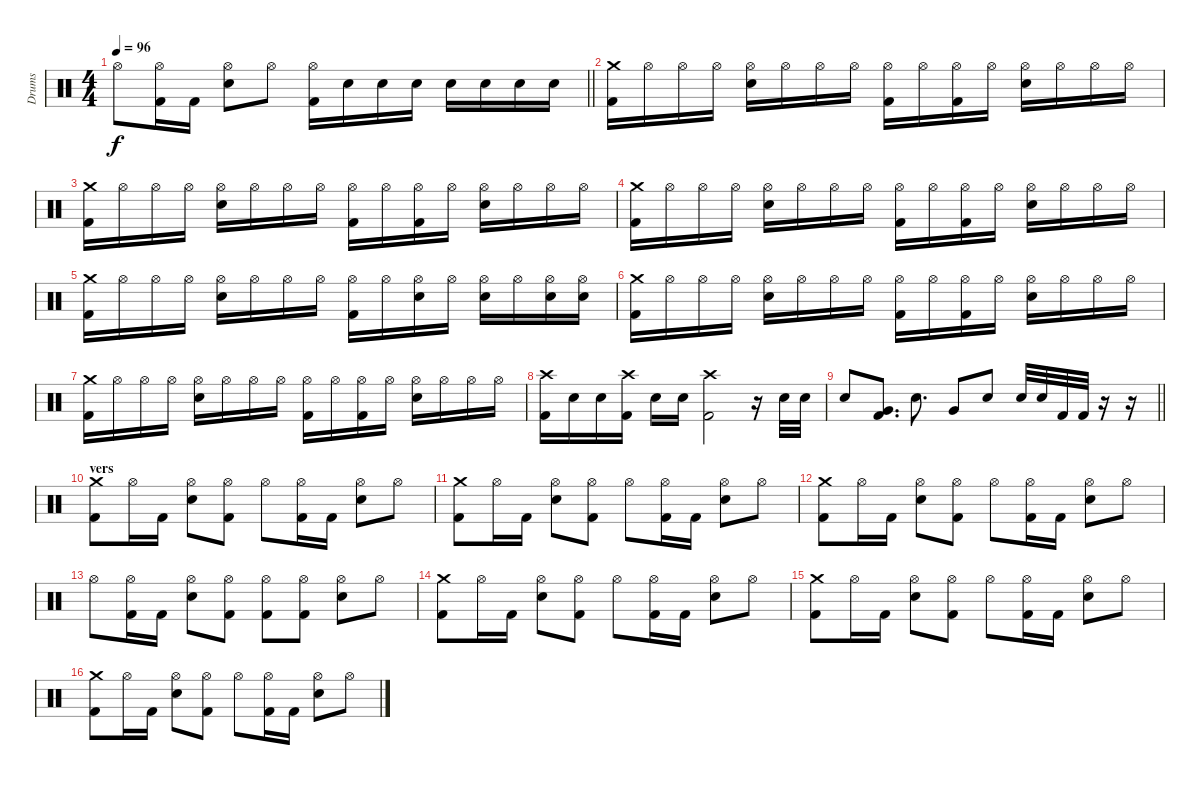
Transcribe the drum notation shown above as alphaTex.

\track ("Drums" "Drums") {instrument percussion}
\staff {score}
\articulation defaults
\ts (4 4)
\tempo 96
\clef neutral
\barLineRight lightlight
\ks c "Hi-Hat (open)".8{dy f}
("Hi-Hat (open)" "Kick (hit) 2").16 "Kick (hit) 2".16 ("Hi-Hat (open)" "Electric Snare (hit)").8 "Hi-Hat (open)".8 ("Hi-Hat (open)" "Kick (hit) 2").16 "Electric Snare (hit)".16 "Electric Snare (hit)".16 "Electric Snare (hit)".16 "Electric Snare (hit)".16 "Electric Snare (hit)".16 "Electric Snare (hit)".16 "Electric Snare (hit)".16 |
("Crash medium (hit)" "Kick (hit) 2").16 "Hi-Hat (open)".16 "Hi-Hat (open)".16 "Hi-Hat (open)".16 ("Hi-Hat (open)" "Electric Snare (hit)").16 "Hi-Hat (open)".16 "Hi-Hat (open)".16 "Hi-Hat (open)".16 ("Hi-Hat (open)" "Kick (hit) 2").16 "Hi-Hat (open)".16 ("Hi-Hat (open)" "Kick (hit) 2").16 "Hi-Hat (open)".16 ("Hi-Hat (open)" "Electric Snare (hit)").16 "Hi-Hat (open)".16 "Hi-Hat (open)".16 "Hi-Hat (open)".16 |
("Crash medium (hit)" "Kick (hit) 2").16 "Hi-Hat (open)".16 "Hi-Hat (open)".16 "Hi-Hat (open)".16 ("Hi-Hat (open)" "Electric Snare (hit)").16 "Hi-Hat (open)".16 "Hi-Hat (open)".16 "Hi-Hat (open)".16 ("Hi-Hat (open)" "Kick (hit) 2").16 "Hi-Hat (open)".16 ("Hi-Hat (open)" "Kick (hit) 2").16 "Hi-Hat (open)".16 ("Hi-Hat (open)" "Electric Snare (hit)").16 "Hi-Hat (open)".16 "Hi-Hat (open)".16 "Hi-Hat (open)".16 |
("Crash medium (hit)" "Kick (hit) 2").16 "Hi-Hat (open)".16 "Hi-Hat (open)".16 "Hi-Hat (open)".16 ("Hi-Hat (open)" "Electric Snare (hit)").16 "Hi-Hat (open)".16 "Hi-Hat (open)".16 "Hi-Hat (open)".16 ("Hi-Hat (open)" "Kick (hit) 2").16 "Hi-Hat (open)".16 ("Hi-Hat (open)" "Kick (hit) 2").16 "Hi-Hat (open)".16 ("Hi-Hat (open)" "Electric Snare (hit)").16 "Hi-Hat (open)".16 "Hi-Hat (open)".16 "Hi-Hat (open)".16 |
("Crash medium (hit)" "Kick (hit) 2").16 "Hi-Hat (open)".16 "Hi-Hat (open)".16 "Hi-Hat (open)".16 ("Hi-Hat (open)" "Electric Snare (hit)").16 "Hi-Hat (open)".16 "Hi-Hat (open)".16 "Hi-Hat (open)".16 ("Hi-Hat (open)" "Kick (hit) 2").16 "Hi-Hat (open)".16 ("Hi-Hat (open)" "Electric Snare (hit)").16 "Hi-Hat (open)".16 ("Hi-Hat (open)" "Electric Snare (hit)").16 "Hi-Hat (open)".16 ("Hi-Hat (open)" "Electric Snare (hit)").16 ("Hi-Hat (open)" "Electric Snare (hit)").16 |
("Crash medium (hit)" "Kick (hit) 2").16 "Hi-Hat (open)".16 "Hi-Hat (open)".16 "Hi-Hat (open)".16 ("Hi-Hat (open)" "Electric Snare (hit)").16 "Hi-Hat (open)".16 "Hi-Hat (open)".16 "Hi-Hat (open)".16 ("Hi-Hat (open)" "Kick (hit) 2").16 "Hi-Hat (open)".16 ("Hi-Hat (open)" "Kick (hit) 2").16 "Hi-Hat (open)".16 ("Hi-Hat (open)" "Electric Snare (hit)").16 "Hi-Hat (open)".16 "Hi-Hat (open)".16 "Hi-Hat (open)".16 |
("Crash medium (hit)" "Kick (hit) 2").16 "Hi-Hat (open)".16 "Hi-Hat (open)".16 "Hi-Hat (open)".16 ("Hi-Hat (open)" "Electric Snare (hit)").16 "Hi-Hat (open)".16 "Hi-Hat (open)".16 "Hi-Hat (open)".16 ("Hi-Hat (open)" "Kick (hit) 2").16 "Hi-Hat (open)".16 ("Hi-Hat (open)" "Kick (hit) 2").16 "Hi-Hat (open)".16 ("Hi-Hat (open)" "Electric Snare (hit)").16 "Hi-Hat (open)".16 "Hi-Hat (open)".16 "Hi-Hat (open)".16 |
("Crash high (hit)" "Kick (hit) 2").16 "Electric Snare (hit)".16 "Electric Snare (hit)".16 ("Crash high (hit)" "Kick (hit) 2").16 "Electric Snare (hit)".16 "Electric Snare (hit)".16 ("Crash high (hit)" "Kick (hit) 2").2 r.16 "Electric Snare (hit)".32 "Electric Snare (hit)".32 |
\barLineRight lightlight "Electric Snare (hit)".8
("Very Low Tom (hit)" "Kick (hit) 2").8{d} "Electric Snare (hit)".8{d} "Very Low Tom (hit)".8 "Electric Snare (hit)".8 "Electric Snare (hit)".32 "Electric Snare (hit)".32 "Kick (hit) 2".32 "Kick (hit) 2".32 r.16 r.16 |
\section ("" "vers")
("Crash medium (hit)" "Kick (hit) 2").8 "Hi-Hat (open)".16 "Kick (hit) 2".16 ("Hi-Hat (open)" "Electric Snare (hit)").8 ("Hi-Hat (open)" "Kick (hit) 2").8 "Hi-Hat (open)".8 ("Hi-Hat (open)" "Kick (hit) 2").16 "Kick (hit) 2".16 ("Hi-Hat (open)" "Electric Snare (hit)").8 "Hi-Hat (open)".8 |
("Crash medium (hit)" "Kick (hit) 2").8 "Hi-Hat (open)".16 "Kick (hit) 2".16 ("Hi-Hat (open)" "Electric Snare (hit)").8 ("Hi-Hat (open)" "Kick (hit) 2").8 "Hi-Hat (open)".8 ("Hi-Hat (open)" "Kick (hit) 2").16 "Kick (hit) 2".16 ("Hi-Hat (open)" "Electric Snare (hit)").8 "Hi-Hat (open)".8 |
("Crash medium (hit)" "Kick (hit) 2").8 "Hi-Hat (open)".16 "Kick (hit) 2".16 ("Hi-Hat (open)" "Electric Snare (hit)").8 ("Hi-Hat (open)" "Kick (hit) 2").8 "Hi-Hat (open)".8 ("Hi-Hat (open)" "Kick (hit) 2").16 "Kick (hit) 2".16 ("Hi-Hat (open)" "Electric Snare (hit)").8 "Hi-Hat (open)".8 |
"Hi-Hat (open)".8 ("Hi-Hat (open)" "Kick (hit) 2").16 "Kick (hit) 2".16 ("Hi-Hat (open)" "Electric Snare (hit)").8 ("Hi-Hat (open)" "Kick (hit) 2").8 ("Hi-Hat (open)" "Kick (hit) 2").8 ("Hi-Hat (open)" "Kick (hit) 2").8 ("Hi-Hat (open)" "Electric Snare (hit)").8 "Hi-Hat (open)".8 |
("Crash medium (hit)" "Kick (hit) 2").8 "Hi-Hat (open)".16 "Kick (hit) 2".16 ("Hi-Hat (open)" "Electric Snare (hit)").8 ("Hi-Hat (open)" "Kick (hit) 2").8 "Hi-Hat (open)".8 ("Hi-Hat (open)" "Kick (hit) 2").16 "Kick (hit) 2".16 ("Hi-Hat (open)" "Electric Snare (hit)").8 "Hi-Hat (open)".8 |
("Crash medium (hit)" "Kick (hit) 2").8 "Hi-Hat (open)".16 "Kick (hit) 2".16 ("Hi-Hat (open)" "Electric Snare (hit)").8 ("Hi-Hat (open)" "Kick (hit) 2").8 "Hi-Hat (open)".8 ("Hi-Hat (open)" "Kick (hit) 2").16 "Kick (hit) 2".16 ("Hi-Hat (open)" "Electric Snare (hit)").8 "Hi-Hat (open)".8 |
("Crash medium (hit)" "Kick (hit) 2").8 "Hi-Hat (open)".16 "Kick (hit) 2".16 ("Hi-Hat (open)" "Electric Snare (hit)").8 ("Hi-Hat (open)" "Kick (hit) 2").8 "Hi-Hat (open)".8 ("Hi-Hat (open)" "Kick (hit) 2").16 "Kick (hit) 2".16 ("Hi-Hat (open)" "Electric Snare (hit)").8 "Hi-Hat (open)".8
